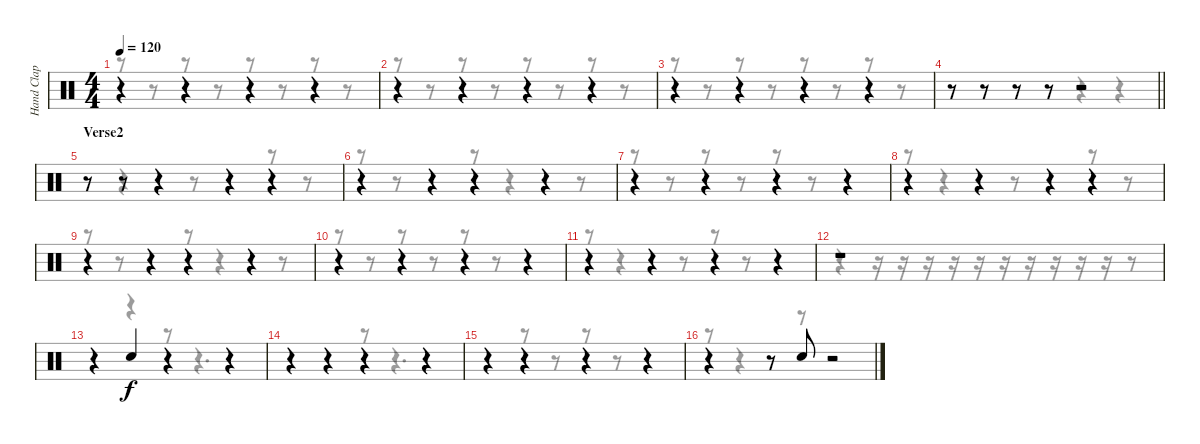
\track ("Hand Clap" "Hand Clap") {instrument percussion}
\staff {score}
\articulation defaults
\voice
\ts (4 4)
\tempo 120
\clef neutral
\ks c
r.4{dy f} r.4 r.4 r.4 |
r.4 r.4 r.4 r.4 |
r.4 r.4 r.4 r.4 |
\barLineRight lightlight
r.8 r.8 r.8 r.8 r.2 |
\section ("" "Verse2")
r.8 r.8 r.4 r.4 r.4 |
r.4 r.4 r.4 r.4 |
r.4 r.4 r.4 r.4 |
r.4 r.4 r.4 r.4 |
r.4 r.4 r.4 r.4 |
r.4 r.4 r.4 r.4 |
r.4 r.4 r.4 r.4 |
r.1 |
r.4 "Hand Clap (hit)".4 r.4 r.4 |
r.4 r.4 r.4 r.4 |
r.4 r.4 r.4 r.4 |
r.4 r.8 "Hand Clap (hit)".8 r.2
\voice
\clef neutral
\ottava regular
\simile none
\ks c
r.8{dy f} r.8 r.8 r.8 r.8 r.8 r.8 r.8 |
r.8 r.8 r.8 r.8 r.8 r.8 r.8 r.8 |
r.8 r.8 r.8 r.8 r.8 r.8 r.8 r.8 |
\barLineRight lightlight
r.8 r.8 r.8 r.8 r.4 r.4 |
r.8 r.4 r.8 r.4 r.8 r.8 |
r.8 r.8 r.4 r.8 r.4 r.8 |
r.8 r.8 r.8 r.8 r.8 r.8 r.4 |
r.8 r.4 r.8 r.4 r.8 r.8 |
r.8 r.8 r.4 r.8 r.4 r.8 |
r.8 r.8 r.8 r.8 r.8 r.8 r.4 |
r.8 r.4 r.8 r.8 r.8 r.4 |
r.4 r.16 r.16 r.16 r.16 r.16 r.16 r.16 r.16 r.16 r.16 r.8 |
r.4 r.4 r.8 r.4{d} |
r.4 r.4 r.8 r.4{d} |
r.4 r.8 r.8 r.8 r.8 r.4 |
r.8 r.4 r.8 r.2
